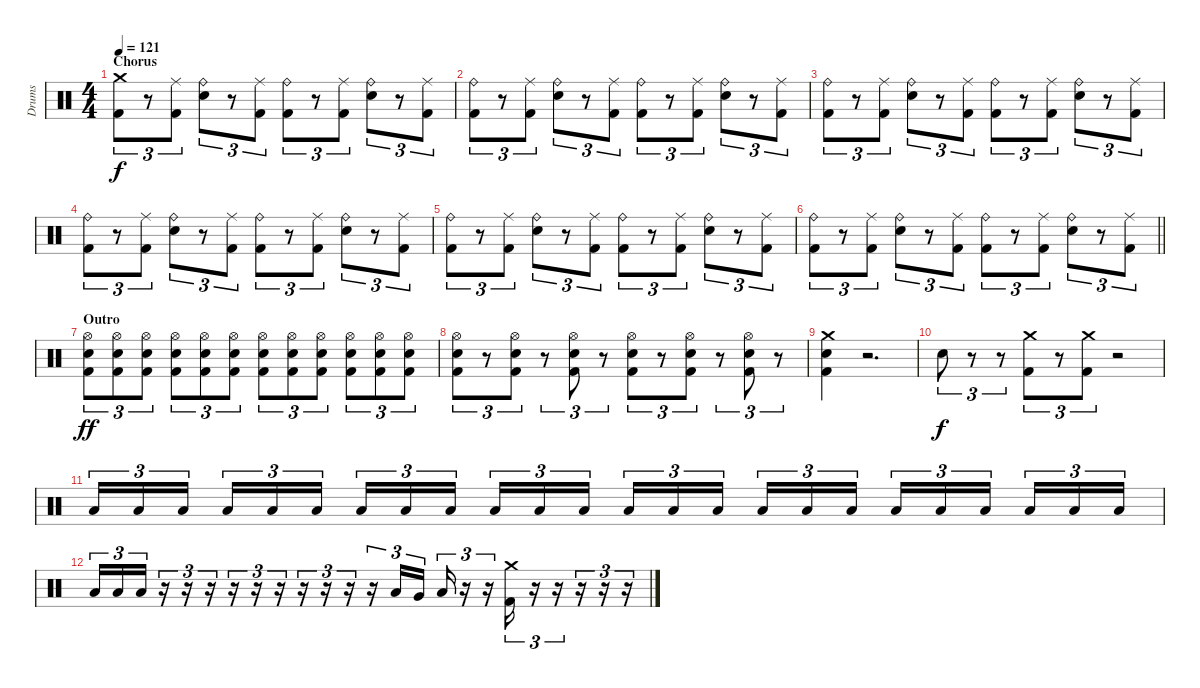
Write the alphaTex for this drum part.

\track ("Drums" "Drums") {instrument percussion}
\staff {score}
\articulation defaults
\ts (4 4)
\section ("" "Chorus")
\tempo 121
\clef neutral
\ks c
("Crash medium (hit)" "Kick (hit) 2").8{tu (3 2) dy f} r.8{tu (3 2)} ("Ride (middle)" "Kick (hit) 2").8{tu (3 2)} ("Ride (bell)" "Snare (hit) 2").8{tu (3 2)} r.8{tu (3 2)} ("Ride (middle)" "Kick (hit) 2").8{tu (3 2)} ("Ride (bell)" "Kick (hit) 2").8{tu (3 2)} r.8{tu (3 2)} ("Ride (middle)" "Kick (hit) 2").8{tu (3 2)} ("Ride (bell)" "Snare (hit) 2").8{tu (3 2)} r.8{tu (3 2)} ("Ride (middle)" "Kick (hit) 2").8{tu (3 2)} |
("Ride (bell)" "Kick (hit) 2").8{tu (3 2)} r.8{tu (3 2)} ("Ride (middle)" "Kick (hit) 2").8{tu (3 2)} ("Ride (bell)" "Snare (hit) 2").8{tu (3 2)} r.8{tu (3 2)} ("Ride (middle)" "Kick (hit) 2").8{tu (3 2)} ("Ride (bell)" "Kick (hit) 2").8{tu (3 2)} r.8{tu (3 2)} ("Ride (middle)" "Kick (hit) 2").8{tu (3 2)} ("Ride (bell)" "Snare (hit) 2").8{tu (3 2)} r.8{tu (3 2)} ("Ride (middle)" "Kick (hit) 2").8{tu (3 2)} |
("Ride (bell)" "Kick (hit) 2").8{tu (3 2)} r.8{tu (3 2)} ("Ride (middle)" "Kick (hit) 2").8{tu (3 2)} ("Ride (bell)" "Snare (hit) 2").8{tu (3 2)} r.8{tu (3 2)} ("Ride (middle)" "Kick (hit) 2").8{tu (3 2)} ("Ride (bell)" "Kick (hit) 2").8{tu (3 2)} r.8{tu (3 2)} ("Ride (middle)" "Kick (hit) 2").8{tu (3 2)} ("Ride (bell)" "Snare (hit) 2").8{tu (3 2)} r.8{tu (3 2)} ("Ride (middle)" "Kick (hit) 2").8{tu (3 2)} |
("Ride (bell)" "Kick (hit) 2").8{tu (3 2)} r.8{tu (3 2)} ("Ride (middle)" "Kick (hit) 2").8{tu (3 2)} ("Ride (bell)" "Snare (hit) 2").8{tu (3 2)} r.8{tu (3 2)} ("Ride (middle)" "Kick (hit) 2").8{tu (3 2)} ("Ride (bell)" "Kick (hit) 2").8{tu (3 2)} r.8{tu (3 2)} ("Ride (middle)" "Kick (hit) 2").8{tu (3 2)} ("Ride (bell)" "Snare (hit) 2").8{tu (3 2)} r.8{tu (3 2)} ("Ride (middle)" "Kick (hit) 2").8{tu (3 2)} |
("Ride (bell)" "Kick (hit) 2").8{tu (3 2)} r.8{tu (3 2)} ("Ride (middle)" "Kick (hit) 2").8{tu (3 2)} ("Ride (bell)" "Snare (hit) 2").8{tu (3 2)} r.8{tu (3 2)} ("Ride (middle)" "Kick (hit) 2").8{tu (3 2)} ("Ride (bell)" "Kick (hit) 2").8{tu (3 2)} r.8{tu (3 2)} ("Ride (middle)" "Kick (hit) 2").8{tu (3 2)} ("Ride (bell)" "Snare (hit) 2").8{tu (3 2)} r.8{tu (3 2)} ("Ride (middle)" "Kick (hit) 2").8{tu (3 2)} |
\barLineRight lightlight
("Ride (bell)" "Kick (hit) 2").8{tu (3 2)} r.8{tu (3 2)} ("Ride (middle)" "Kick (hit) 2").8{tu (3 2)} ("Ride (bell)" "Snare (hit) 2").8{tu (3 2)} r.8{tu (3 2)} ("Ride (middle)" "Kick (hit) 2").8{tu (3 2)} ("Ride (bell)" "Kick (hit) 2").8{tu (3 2)} r.8{tu (3 2)} ("Ride (middle)" "Kick (hit) 2").8{tu (3 2)} ("Ride (bell)" "Snare (hit) 2").8{tu (3 2)} r.8{tu (3 2)} ("Ride (middle)" "Kick (hit) 2").8{tu (3 2)} |
\section ("" "Outro")
("Hi-Hat (open)" "Snare (hit) 2" "Kick (hit) 2").8{tu (3 2) dy ff} ("Hi-Hat (open)" "Snare (hit) 2" "Kick (hit) 2").8{tu (3 2)} ("Hi-Hat (open)" "Snare (hit) 2" "Kick (hit) 2").8{tu (3 2)} ("Hi-Hat (open)" "Snare (hit) 2" "Kick (hit) 2").8{tu (3 2)} ("Hi-Hat (open)" "Snare (hit) 2" "Kick (hit) 2").8{tu (3 2)} ("Hi-Hat (open)" "Snare (hit) 2" "Kick (hit) 2").8{tu (3 2)} ("Hi-Hat (open)" "Snare (hit) 2" "Kick (hit) 2").8{tu (3 2)} ("Hi-Hat (open)" "Snare (hit) 2" "Kick (hit) 2").8{tu (3 2)} ("Hi-Hat (open)" "Snare (hit) 2" "Kick (hit) 2").8{tu (3 2)} ("Hi-Hat (open)" "Snare (hit) 2" "Kick (hit) 2").8{tu (3 2)} ("Hi-Hat (open)" "Snare (hit) 2" "Kick (hit) 2").8{tu (3 2)} ("Hi-Hat (open)" "Snare (hit) 2" "Kick (hit) 2").8{tu (3 2)} |
("Hi-Hat (open)" "Snare (hit) 2" "Kick (hit) 2").8{tu (3 2)} r.8{tu (3 2)} ("Hi-Hat (open)" "Snare (hit) 2" "Kick (hit) 2").8{tu (3 2)} r.8{tu (3 2)} ("Hi-Hat (open)" "Snare (hit) 2" "Kick (hit) 2").8{tu (3 2)} r.8{tu (3 2)} ("Hi-Hat (open)" "Snare (hit) 2" "Kick (hit) 2").8{tu (3 2)} r.8{tu (3 2)} ("Hi-Hat (open)" "Snare (hit) 2" "Kick (hit) 2").8{tu (3 2)} r.8{tu (3 2)} ("Hi-Hat (open)" "Snare (hit) 2" "Kick (hit) 2").8{tu (3 2)} r.8{tu (3 2)} |
("Crash medium (hit)" "Snare (hit) 2" "Kick (hit) 2").4 r.2{d} |
"Snare (hit) 2".8{tu (3 2) dy f} r.8{tu (3 2)} r.8{tu (3 2)} ("Crash medium (hit)" "Kick (hit) 2").8{tu (3 2)} r.8{tu (3 2)} ("Crash medium (hit)" "Kick (hit) 2").8{tu (3 2)} r.2 |
"Low Floor Tom (hit)".16{tu (3 2)} "Low Floor Tom (hit)".16{tu (3 2)} "Low Floor Tom (hit)".16{tu (3 2) beam splitsecondary} "Low Floor Tom (hit)".16{tu (3 2)} "Low Floor Tom (hit)".16{tu (3 2)} "Low Floor Tom (hit)".16{tu (3 2)} "Low Floor Tom (hit)".16{tu (3 2)} "Low Floor Tom (hit)".16{tu (3 2)} "Low Floor Tom (hit)".16{tu (3 2) beam splitsecondary} "Low Floor Tom (hit)".16{tu (3 2)} "Low Floor Tom (hit)".16{tu (3 2)} "Low Floor Tom (hit)".16{tu (3 2)} "Low Floor Tom (hit)".16{tu (3 2)} "Low Floor Tom (hit)".16{tu (3 2)} "Low Floor Tom (hit)".16{tu (3 2) beam splitsecondary} "Low Floor Tom (hit)".16{tu (3 2)} "Low Floor Tom (hit)".16{tu (3 2)} "Low Floor Tom (hit)".16{tu (3 2)} "Low Floor Tom (hit)".16{tu (3 2)} "Low Floor Tom (hit)".16{tu (3 2)} "Low Floor Tom (hit)".16{tu (3 2) beam splitsecondary} "Low Floor Tom (hit)".16{tu (3 2)} "Low Floor Tom (hit)".16{tu (3 2)} "Low Floor Tom (hit)".16{tu (3 2)} |
"Low Floor Tom (hit)".16{tu (3 2)} "Low Floor Tom (hit)".16{tu (3 2)} "Low Floor Tom (hit)".16{tu (3 2)} r.16{tu (3 2)} r.16{tu (3 2)} r.16{tu (3 2)} r.16{tu (3 2)} r.16{tu (3 2)} r.16{tu (3 2)} r.16{tu (3 2)} r.16{tu (3 2)} r.16{tu (3 2)} r.16{tu (3 2)} "Low Tom (hit)".16{tu (3 2)} "Very Low Tom (hit)".16{tu (3 2) beam splitsecondary} "Low Floor Tom (hit)".16{tu (3 2)} r.16{tu (3 2)} r.16{tu (3 2)} ("Crash medium (hit)" "Kick (hit) 2").16{tu (3 2)} r.16{tu (3 2)} r.16{tu (3 2)} r.16{tu (3 2)} r.16{tu (3 2)} r.16{tu (3 2)}
